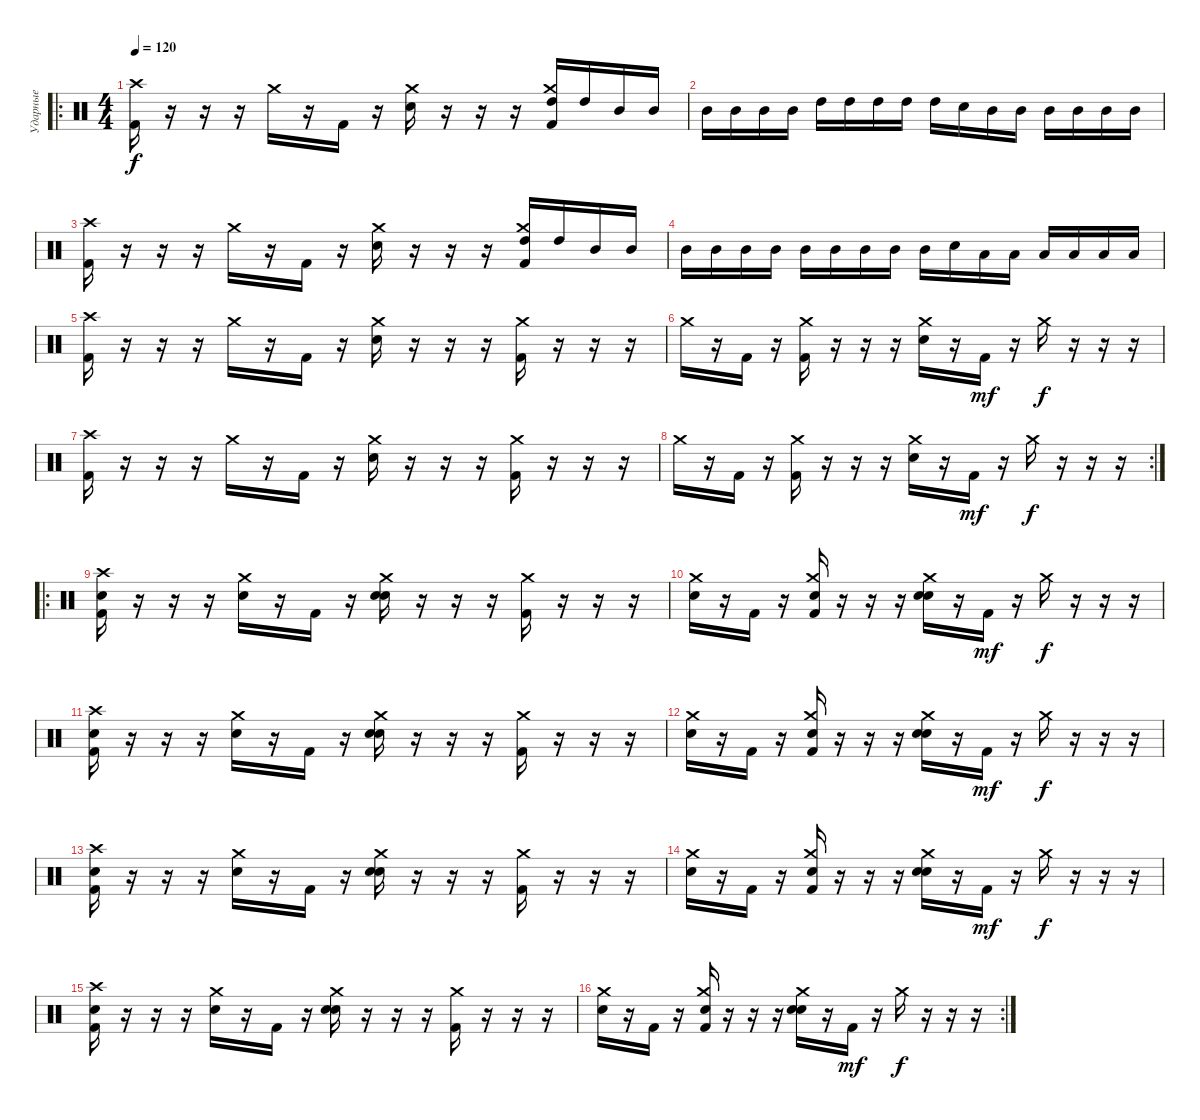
\track ("Ударные" "Ударные") {instrument percussion}
\staff {score}
\articulation defaults
\ro
\ts (4 4)
\tempo 120
\clef neutral
\ks c
("Crash high (hit)" "Kick (hit) 2").16{dy f} r.16 r.16 r.16 "Crash medium (hit)".16 r.16 "Kick (hit) 2".16 r.16 ("Crash medium (hit)" "Electric Snare (hit)").16 r.16 r.16 r.16 ("Crash medium (hit)" "High Tom (hit)" "Kick (hit) 2").16 "High Tom (hit)".16 "Mid Tom (hit)".16 "Mid Tom (hit)".16 |
"Mid Tom (hit)".16 "Mid Tom (hit)".16 "Mid Tom (hit)".16 "Mid Tom (hit)".16 "High Tom (hit)".16 "High Tom (hit)".16 "High Tom (hit)".16 "High Tom (hit)".16 "High Tom (hit)".16 "Electric Snare (hit)".16 "Mid Tom (hit)".16 "Mid Tom (hit)".16 "Mid Tom (hit)".16 "Mid Tom (hit)".16 "Mid Tom (hit)".16 "Mid Tom (hit)".16 |
("Crash high (hit)" "Kick (hit) 2").16 r.16 r.16 r.16 "Crash medium (hit)".16 r.16 "Kick (hit) 2".16 r.16 ("Crash medium (hit)" "Electric Snare (hit)").16 r.16 r.16 r.16 ("Crash medium (hit)" "High Tom (hit)" "Kick (hit) 2").16 "High Tom (hit)".16 "Mid Tom (hit)".16 "Mid Tom (hit)".16 |
"Mid Tom (hit)".16 "Mid Tom (hit)".16 "Mid Tom (hit)".16 "Mid Tom (hit)".16 "Mid Tom (hit)".16 "Mid Tom (hit)".16 "Mid Tom (hit)".16 "Mid Tom (hit)".16 "Mid Tom (hit)".16 "Electric Snare (hit)".16 "Low Tom (hit)".16 "Low Tom (hit)".16 "Low Tom (hit)".16 "Low Tom (hit)".16 "Low Tom (hit)".16 "Low Tom (hit)".16 |
("Crash high (hit)" "Kick (hit) 2").16 r.16 r.16 r.16 "Crash medium (hit)".16 r.16 "Kick (hit) 2".16 r.16 ("Crash medium (hit)" "Electric Snare (hit)").16 r.16 r.16 r.16 ("Crash medium (hit)" "Kick (hit) 2").16 r.16 r.16 r.16 |
"Crash medium (hit)".16 r.16 "Kick (hit) 2".16 r.16 ("Crash medium (hit)" "Kick (hit) 2").16 r.16 r.16 r.16 ("Crash medium (hit)" "Electric Snare (hit)").16 r.16 "Kick (hit) 2".16{dy mf} r.16 "Crash medium (hit)".16{dy f} r.16 r.16 r.16 |
("Crash high (hit)" "Kick (hit) 2").16 r.16 r.16 r.16 "Crash medium (hit)".16 r.16 "Kick (hit) 2".16 r.16 ("Crash medium (hit)" "Electric Snare (hit)").16 r.16 r.16 r.16 ("Crash medium (hit)" "Kick (hit) 2").16 r.16 r.16 r.16 |
\rc 2 "Crash medium (hit)".16
r.16 "Kick (hit) 2".16 r.16 ("Crash medium (hit)" "Kick (hit) 2").16 r.16 r.16 r.16 ("Crash medium (hit)" "Electric Snare (hit)").16 r.16 "Kick (hit) 2".16{dy mf} r.16 "Crash medium (hit)".16{dy f} r.16 r.16 r.16 |
\ro
("Crash high (hit)" "Snare (hit) 2" "Kick (hit) 2").16 r.16 r.16 r.16 ("Crash medium (hit)" "Snare (hit) 2").16 r.16 "Kick (hit) 2".16 r.16 ("Crash medium (hit)" "Snare (hit) 2" "Electric Snare (hit)").16 r.16 r.16 r.16 ("Crash medium (hit)" "Kick (hit) 2").16 r.16 r.16 r.16 |
("Crash medium (hit)" "Snare (hit) 2").16 r.16 "Kick (hit) 2".16 r.16 ("Crash medium (hit)" "Snare (hit) 2" "Kick (hit) 2").16 r.16 r.16 r.16 ("Crash medium (hit)" "Snare (hit) 2" "Electric Snare (hit)").16 r.16 "Kick (hit) 2".16{dy mf} r.16 "Crash medium (hit)".16{dy f} r.16 r.16 r.16 |
("Crash high (hit)" "Snare (hit) 2" "Kick (hit) 2").16 r.16 r.16 r.16 ("Crash medium (hit)" "Snare (hit) 2").16 r.16 "Kick (hit) 2".16 r.16 ("Crash medium (hit)" "Snare (hit) 2" "Electric Snare (hit)").16 r.16 r.16 r.16 ("Crash medium (hit)" "Kick (hit) 2").16 r.16 r.16 r.16 |
("Crash medium (hit)" "Snare (hit) 2").16 r.16 "Kick (hit) 2".16 r.16 ("Crash medium (hit)" "Snare (hit) 2" "Kick (hit) 2").16 r.16 r.16 r.16 ("Crash medium (hit)" "Snare (hit) 2" "Electric Snare (hit)").16 r.16 "Kick (hit) 2".16{dy mf} r.16 "Crash medium (hit)".16{dy f} r.16 r.16 r.16 |
("Crash high (hit)" "Snare (hit) 2" "Kick (hit) 2").16 r.16 r.16 r.16 ("Crash medium (hit)" "Snare (hit) 2").16 r.16 "Kick (hit) 2".16 r.16 ("Crash medium (hit)" "Snare (hit) 2" "Electric Snare (hit)").16 r.16 r.16 r.16 ("Crash medium (hit)" "Kick (hit) 2").16 r.16 r.16 r.16 |
("Crash medium (hit)" "Snare (hit) 2").16 r.16 "Kick (hit) 2".16 r.16 ("Crash medium (hit)" "Snare (hit) 2" "Kick (hit) 2").16 r.16 r.16 r.16 ("Crash medium (hit)" "Snare (hit) 2" "Electric Snare (hit)").16 r.16 "Kick (hit) 2".16{dy mf} r.16 "Crash medium (hit)".16{dy f} r.16 r.16 r.16 |
("Crash high (hit)" "Snare (hit) 2" "Kick (hit) 2").16 r.16 r.16 r.16 ("Crash medium (hit)" "Snare (hit) 2").16 r.16 "Kick (hit) 2".16 r.16 ("Crash medium (hit)" "Snare (hit) 2" "Electric Snare (hit)").16 r.16 r.16 r.16 ("Crash medium (hit)" "Kick (hit) 2").16 r.16 r.16 r.16 |
\rc 2
("Crash medium (hit)" "Snare (hit) 2").16 r.16 "Kick (hit) 2".16 r.16 ("Crash medium (hit)" "Snare (hit) 2" "Kick (hit) 2").16 r.16 r.16 r.16 ("Crash medium (hit)" "Snare (hit) 2" "Electric Snare (hit)").16 r.16 "Kick (hit) 2".16{dy mf} r.16 "Crash medium (hit)".16{dy f} r.16 r.16 r.16
